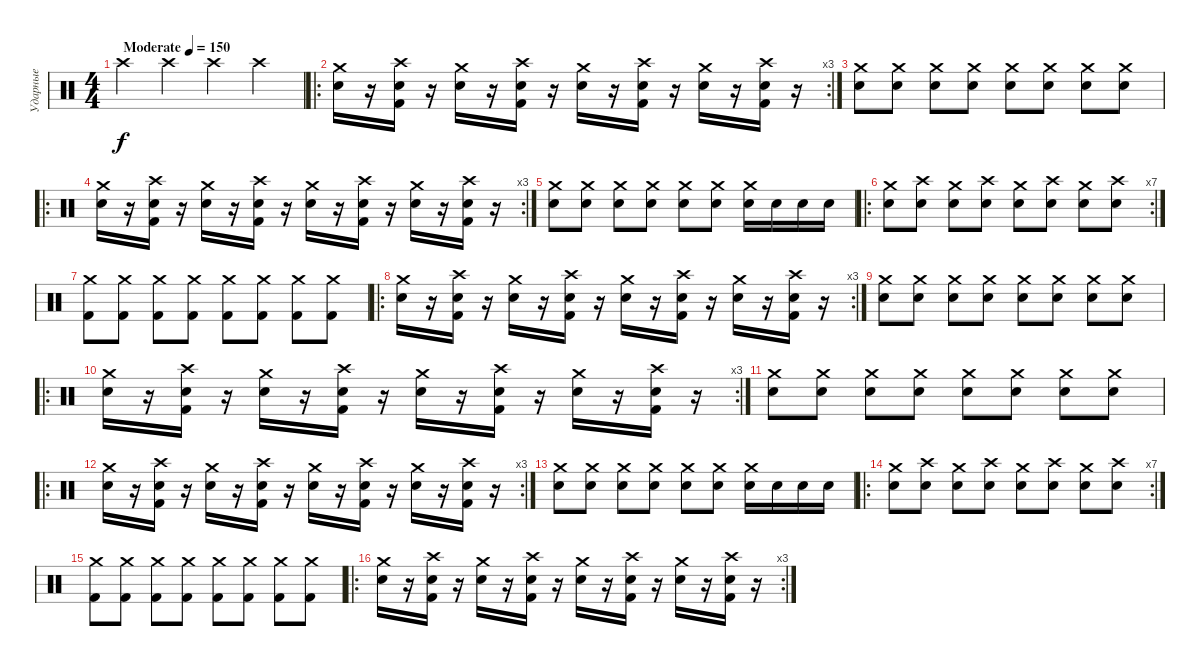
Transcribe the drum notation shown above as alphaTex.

\track ("Ударные" "Ударные") {instrument percussion}
\staff {score}
\articulation defaults
\ts (4 4)
\tempo (150 "Moderate")
\clef neutral
\ks c "Crash high (hit)".4{dy f} "Crash high (hit)".4 "Crash high (hit)".4 "Crash high (hit)".4
|
\ro
\rc 3
("Crash medium (hit)" "Snare (hit) 2").16 r.16 ("Crash high (hit)" "Electric Snare (hit)" "Kick (hit) 2").16 r.16 ("Crash medium (hit)" "Snare (hit) 2").16 r.16 ("Crash high (hit)" "Electric Snare (hit)" "Kick (hit) 2").16 r.16 ("Crash medium (hit)" "Snare (hit) 2").16 r.16 ("Crash high (hit)" "Electric Snare (hit)" "Kick (hit) 2").16 r.16 ("Crash medium (hit)" "Snare (hit) 2").16 r.16 ("Crash high (hit)" "Electric Snare (hit)" "Kick (hit) 2").16 r.16 |
("Crash medium (hit)" "Snare (hit) 2").8 ("Crash medium (hit)" "Snare (hit) 2").8 ("Crash medium (hit)" "Snare (hit) 2").8 ("Crash medium (hit)" "Snare (hit) 2").8 ("Crash medium (hit)" "Snare (hit) 2").8 ("Crash medium (hit)" "Snare (hit) 2").8 ("Crash medium (hit)" "Snare (hit) 2").8 ("Crash medium (hit)" "Snare (hit) 2").8 |
\ro
\rc 3
("Crash medium (hit)" "Snare (hit) 2").16 r.16 ("Crash high (hit)" "Electric Snare (hit)" "Kick (hit) 2").16 r.16 ("Crash medium (hit)" "Snare (hit) 2").16 r.16 ("Crash high (hit)" "Electric Snare (hit)" "Kick (hit) 2").16 r.16 ("Crash medium (hit)" "Snare (hit) 2").16 r.16 ("Crash high (hit)" "Electric Snare (hit)" "Kick (hit) 2").16 r.16 ("Crash medium (hit)" "Snare (hit) 2").16 r.16 ("Crash high (hit)" "Electric Snare (hit)" "Kick (hit) 2").16 r.16 |
("Crash medium (hit)" "Snare (hit) 2").8 ("Crash medium (hit)" "Snare (hit) 2").8 ("Crash medium (hit)" "Snare (hit) 2").8 ("Crash medium (hit)" "Snare (hit) 2").8 ("Crash medium (hit)" "Snare (hit) 2").8 ("Crash medium (hit)" "Snare (hit) 2").8 ("Crash medium (hit)" "Snare (hit) 2").16 "Snare (hit) 2".16 "Snare (hit) 2".16 "Snare (hit) 2".16 |
\ro
\rc 7
("Crash medium (hit)" "Snare (hit) 2").8 ("Crash high (hit)" "Electric Snare (hit)").8 ("Crash medium (hit)" "Snare (hit) 2").8 ("Crash high (hit)" "Electric Snare (hit)").8 ("Crash medium (hit)" "Snare (hit) 2").8 ("Crash high (hit)" "Electric Snare (hit)").8 ("Crash medium (hit)" "Snare (hit) 2").8 ("Crash high (hit)" "Electric Snare (hit)").8 |
("Crash medium (hit)" "Kick (hit) 2").8 ("Crash medium (hit)" "Kick (hit) 2").8 ("Crash medium (hit)" "Kick (hit) 2").8 ("Crash medium (hit)" "Kick (hit) 2").8 ("Crash medium (hit)" "Kick (hit) 2").8 ("Crash medium (hit)" "Kick (hit) 2").8 ("Crash medium (hit)" "Kick (hit) 2").8 ("Crash medium (hit)" "Kick (hit) 2").8 |
\ro
\rc 3
("Crash medium (hit)" "Snare (hit) 2").16 r.16 ("Crash high (hit)" "Electric Snare (hit)" "Kick (hit) 2").16 r.16 ("Crash medium (hit)" "Snare (hit) 2").16 r.16 ("Crash high (hit)" "Electric Snare (hit)" "Kick (hit) 2").16 r.16 ("Crash medium (hit)" "Snare (hit) 2").16 r.16 ("Crash high (hit)" "Electric Snare (hit)" "Kick (hit) 2").16 r.16 ("Crash medium (hit)" "Snare (hit) 2").16 r.16 ("Crash high (hit)" "Electric Snare (hit)" "Kick (hit) 2").16 r.16 |
("Crash medium (hit)" "Snare (hit) 2").8 ("Crash medium (hit)" "Snare (hit) 2").8 ("Crash medium (hit)" "Snare (hit) 2").8 ("Crash medium (hit)" "Snare (hit) 2").8 ("Crash medium (hit)" "Snare (hit) 2").8 ("Crash medium (hit)" "Snare (hit) 2").8 ("Crash medium (hit)" "Snare (hit) 2").8 ("Crash medium (hit)" "Snare (hit) 2").8 |
\ro
\rc 3
("Crash medium (hit)" "Snare (hit) 2").16 r.16 ("Crash high (hit)" "Electric Snare (hit)" "Kick (hit) 2").16 r.16 ("Crash medium (hit)" "Snare (hit) 2").16 r.16 ("Crash high (hit)" "Electric Snare (hit)" "Kick (hit) 2").16 r.16 ("Crash medium (hit)" "Snare (hit) 2").16 r.16 ("Crash high (hit)" "Electric Snare (hit)" "Kick (hit) 2").16 r.16 ("Crash medium (hit)" "Snare (hit) 2").16 r.16 ("Crash high (hit)" "Electric Snare (hit)" "Kick (hit) 2").16 r.16 |
("Crash medium (hit)" "Snare (hit) 2").8 ("Crash medium (hit)" "Snare (hit) 2").8 ("Crash medium (hit)" "Snare (hit) 2").8 ("Crash medium (hit)" "Snare (hit) 2").8 ("Crash medium (hit)" "Snare (hit) 2").8 ("Crash medium (hit)" "Snare (hit) 2").8 ("Crash medium (hit)" "Snare (hit) 2").8 ("Crash medium (hit)" "Snare (hit) 2").8 |
\ro
\rc 3
("Crash medium (hit)" "Snare (hit) 2").16 r.16 ("Crash high (hit)" "Electric Snare (hit)" "Kick (hit) 2").16 r.16 ("Crash medium (hit)" "Snare (hit) 2").16 r.16 ("Crash high (hit)" "Electric Snare (hit)" "Kick (hit) 2").16 r.16 ("Crash medium (hit)" "Snare (hit) 2").16 r.16 ("Crash high (hit)" "Electric Snare (hit)" "Kick (hit) 2").16 r.16 ("Crash medium (hit)" "Snare (hit) 2").16 r.16 ("Crash high (hit)" "Electric Snare (hit)" "Kick (hit) 2").16 r.16 |
("Crash medium (hit)" "Snare (hit) 2").8 ("Crash medium (hit)" "Snare (hit) 2").8 ("Crash medium (hit)" "Snare (hit) 2").8 ("Crash medium (hit)" "Snare (hit) 2").8 ("Crash medium (hit)" "Snare (hit) 2").8 ("Crash medium (hit)" "Snare (hit) 2").8 ("Crash medium (hit)" "Snare (hit) 2").16 "Snare (hit) 2".16 "Snare (hit) 2".16 "Snare (hit) 2".16 |
\ro
\rc 7
("Crash medium (hit)" "Snare (hit) 2").8 ("Crash high (hit)" "Electric Snare (hit)").8 ("Crash medium (hit)" "Snare (hit) 2").8 ("Crash high (hit)" "Electric Snare (hit)").8 ("Crash medium (hit)" "Snare (hit) 2").8 ("Crash high (hit)" "Electric Snare (hit)").8 ("Crash medium (hit)" "Snare (hit) 2").8 ("Crash high (hit)" "Electric Snare (hit)").8 |
("Crash medium (hit)" "Kick (hit) 2").8 ("Crash medium (hit)" "Kick (hit) 2").8 ("Crash medium (hit)" "Kick (hit) 2").8 ("Crash medium (hit)" "Kick (hit) 2").8 ("Crash medium (hit)" "Kick (hit) 2").8 ("Crash medium (hit)" "Kick (hit) 2").8 ("Crash medium (hit)" "Kick (hit) 2").8 ("Crash medium (hit)" "Kick (hit) 2").8 |
\ro
\rc 3
("Crash medium (hit)" "Snare (hit) 2").16 r.16 ("Crash high (hit)" "Electric Snare (hit)" "Kick (hit) 2").16 r.16 ("Crash medium (hit)" "Snare (hit) 2").16 r.16 ("Crash high (hit)" "Electric Snare (hit)" "Kick (hit) 2").16 r.16 ("Crash medium (hit)" "Snare (hit) 2").16 r.16 ("Crash high (hit)" "Electric Snare (hit)" "Kick (hit) 2").16 r.16 ("Crash medium (hit)" "Snare (hit) 2").16 r.16 ("Crash high (hit)" "Electric Snare (hit)" "Kick (hit) 2").16 r.16
